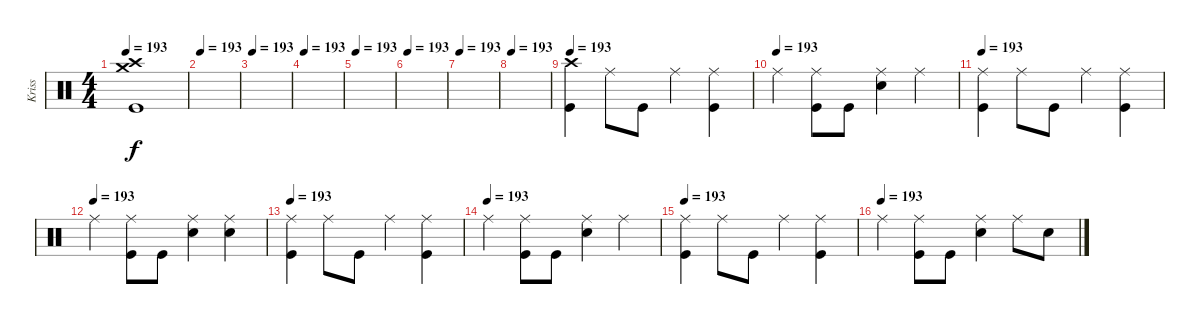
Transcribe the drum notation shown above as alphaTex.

\track ("Kriss" "Kriss") {instrument percussion}
\staff {score}
\articulation defaults
\ts (4 4)
\tempo 193
\clef neutral
\ks c
("Crash high (hit)" "Crash medium (hit)" "Kick (hit)").1{dy f} |
\tempo 193
|
\tempo 193
|
\tempo 193
|
\tempo 193
|
\tempo 193
|
\tempo 193
|
\tempo 193
|
\tempo 193
("Crash high (hit)" "Kick (hit)").4 "Ride (middle)".8 "Kick (hit)".8 "Ride (middle)".4 ("Ride (middle)" "Kick (hit)").4 |
\tempo (193)
"Ride (middle)".4 ("Ride (middle)" "Kick (hit)").8 "Kick (hit)".8 ("Ride (middle)" "Snare (hit) 2").4 "Ride (middle)".4 |
\tempo 193
("Ride (middle)" "Kick (hit)").4 "Ride (middle)".8 "Kick (hit)".8 "Ride (middle)".4 ("Ride (middle)" "Kick (hit)").4 |
\tempo (193)
"Ride (middle)".4 ("Ride (middle)" "Kick (hit)").8 "Kick (hit)".8 ("Ride (middle)" "Snare (hit) 2").4 ("Ride (middle)" "Snare (hit) 2").4 |
\tempo 193
("Ride (middle)" "Kick (hit)").4 "Ride (middle)".8 "Kick (hit)".8 "Ride (middle)".4 ("Ride (middle)" "Kick (hit)").4 |
\tempo (193)
"Ride (middle)".4 ("Ride (middle)" "Kick (hit)").8 "Kick (hit)".8 ("Ride (middle)" "Snare (hit) 2").4 "Ride (middle)".4 |
\tempo 193
("Ride (middle)" "Kick (hit)").4 "Ride (middle)".8 "Kick (hit)".8 "Ride (middle)".4 ("Ride (middle)" "Kick (hit)").4 |
\tempo (193)
"Ride (middle)".4 ("Ride (middle)" "Kick (hit)").8 "Kick (hit)".8 ("Ride (middle)" "Snare (hit) 2").4 "Ride (middle)".8 "Snare (hit) 2".8
